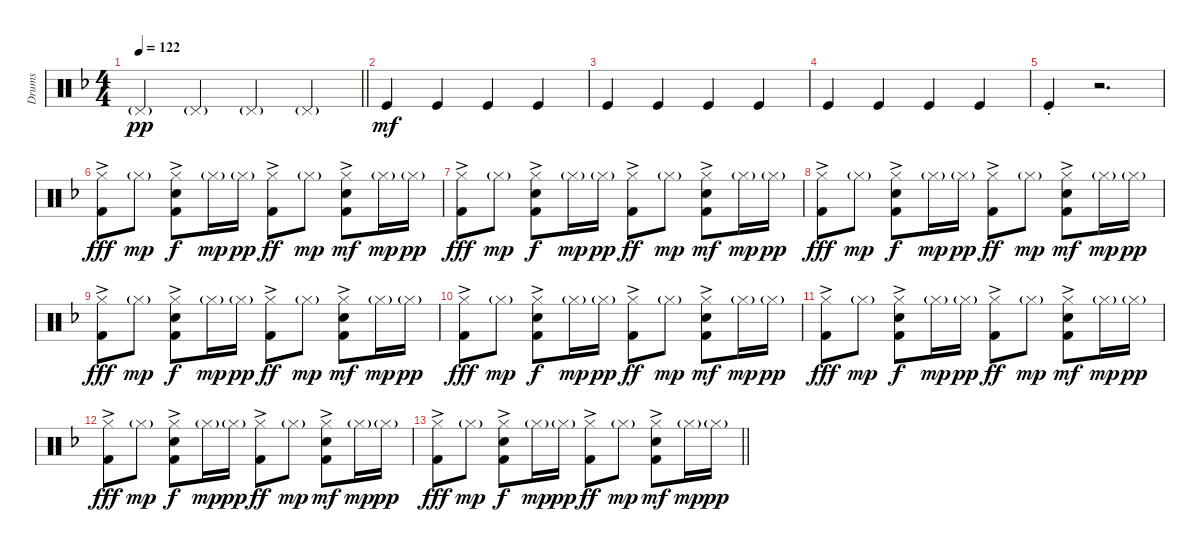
\track ("Drums" "Drums") {instrument percussion}
\staff {score}
\articulation defaults
\ts (4 4)
\tempo 122
\clef neutral
\barLineRight lightlight
\ks f "Pedal Hi-Hat (hit)"{g}.4{dy pp} "Pedal Hi-Hat (hit)"{g}.4 "Pedal Hi-Hat (hit)"{g}.4 "Pedal Hi-Hat (hit)"{g}.4
|
"Kick (hit)".4{dy mf} "Kick (hit)".4 "Kick (hit)".4 "Kick (hit)".4 |
"Kick (hit)".4 "Kick (hit)".4 "Kick (hit)".4 "Kick (hit)".4 |
"Kick (hit)".4 "Kick (hit)".4 "Kick (hit)".4 "Kick (hit)".4 |
"Kick (hit)"{st}.4 r.2{d} |
("Kick (hit) 2"{ac} "Hi-Hat (closed)").8{dy fff} "Hi-Hat (closed)"{g}.8{dy mp} ("Kick (hit) 2" "Snare (hit) 2"{ac} "Hi-Hat (closed)").8{dy f} "Hi-Hat (closed)"{g}.16{dy mp} "Hi-Hat (closed)"{g}.16{dy pp} ("Kick (hit) 2"{ac} "Hi-Hat (closed)").8{dy ff} "Hi-Hat (closed)"{g}.8{dy mp} ("Kick (hit) 2" "Snare (hit) 2"{ac} "Hi-Hat (closed)").8{dy mf} "Hi-Hat (closed)"{g}.16{dy mp} "Hi-Hat (closed)"{g}.16{dy pp} |
("Kick (hit) 2"{ac} "Hi-Hat (closed)").8{dy fff} "Hi-Hat (closed)"{g}.8{dy mp} ("Kick (hit) 2" "Snare (hit) 2"{ac} "Hi-Hat (closed)").8{dy f} "Hi-Hat (closed)"{g}.16{dy mp} "Hi-Hat (closed)"{g}.16{dy pp} ("Kick (hit) 2"{ac} "Hi-Hat (closed)").8{dy ff} "Hi-Hat (closed)"{g}.8{dy mp} ("Kick (hit) 2" "Snare (hit) 2"{ac} "Hi-Hat (closed)").8{dy mf} "Hi-Hat (closed)"{g}.16{dy mp} "Hi-Hat (closed)"{g}.16{dy pp} |
("Kick (hit) 2"{ac} "Hi-Hat (closed)").8{dy fff} "Hi-Hat (closed)"{g}.8{dy mp} ("Kick (hit) 2" "Snare (hit) 2"{ac} "Hi-Hat (closed)").8{dy f} "Hi-Hat (closed)"{g}.16{dy mp} "Hi-Hat (closed)"{g}.16{dy pp} ("Kick (hit) 2"{ac} "Hi-Hat (closed)").8{dy ff} "Hi-Hat (closed)"{g}.8{dy mp} ("Kick (hit) 2" "Snare (hit) 2"{ac} "Hi-Hat (closed)").8{dy mf} "Hi-Hat (closed)"{g}.16{dy mp} "Hi-Hat (closed)"{g}.16{dy pp} |
("Kick (hit) 2"{ac} "Hi-Hat (closed)").8{dy fff} "Hi-Hat (closed)"{g}.8{dy mp} ("Kick (hit) 2" "Snare (hit) 2"{ac} "Hi-Hat (closed)").8{dy f} "Hi-Hat (closed)"{g}.16{dy mp} "Hi-Hat (closed)"{g}.16{dy pp} ("Kick (hit) 2"{ac} "Hi-Hat (closed)").8{dy ff} "Hi-Hat (closed)"{g}.8{dy mp} ("Kick (hit) 2" "Snare (hit) 2"{ac} "Hi-Hat (closed)").8{dy mf} "Hi-Hat (closed)"{g}.16{dy mp} "Hi-Hat (closed)"{g}.16{dy pp} |
("Kick (hit) 2"{ac} "Hi-Hat (closed)").8{dy fff} "Hi-Hat (closed)"{g}.8{dy mp} ("Kick (hit) 2" "Snare (hit) 2"{ac} "Hi-Hat (closed)").8{dy f} "Hi-Hat (closed)"{g}.16{dy mp} "Hi-Hat (closed)"{g}.16{dy pp} ("Kick (hit) 2"{ac} "Hi-Hat (closed)").8{dy ff} "Hi-Hat (closed)"{g}.8{dy mp} ("Kick (hit) 2" "Snare (hit) 2"{ac} "Hi-Hat (closed)").8{dy mf} "Hi-Hat (closed)"{g}.16{dy mp} "Hi-Hat (closed)"{g}.16{dy pp} |
("Kick (hit) 2"{ac} "Hi-Hat (closed)").8{dy fff} "Hi-Hat (closed)"{g}.8{dy mp} ("Kick (hit) 2" "Snare (hit) 2"{ac} "Hi-Hat (closed)").8{dy f} "Hi-Hat (closed)"{g}.16{dy mp} "Hi-Hat (closed)"{g}.16{dy pp} ("Kick (hit) 2"{ac} "Hi-Hat (closed)").8{dy ff} "Hi-Hat (closed)"{g}.8{dy mp} ("Kick (hit) 2" "Snare (hit) 2"{ac} "Hi-Hat (closed)").8{dy mf} "Hi-Hat (closed)"{g}.16{dy mp} "Hi-Hat (closed)"{g}.16{dy pp} |
("Kick (hit) 2"{ac} "Hi-Hat (closed)").8{dy fff} "Hi-Hat (closed)"{g}.8{dy mp} ("Kick (hit) 2" "Snare (hit) 2"{ac} "Hi-Hat (closed)").8{dy f} "Hi-Hat (closed)"{g}.16{dy mp} "Hi-Hat (closed)"{g}.16{dy pp} ("Kick (hit) 2"{ac} "Hi-Hat (closed)").8{dy ff} "Hi-Hat (closed)"{g}.8{dy mp} ("Kick (hit) 2" "Snare (hit) 2"{ac} "Hi-Hat (closed)").8{dy mf} "Hi-Hat (closed)"{g}.16{dy mp} "Hi-Hat (closed)"{g}.16{dy pp} |
\barLineRight lightlight
("Kick (hit) 2"{ac} "Hi-Hat (closed)").8{dy fff} "Hi-Hat (closed)"{g}.8{dy mp} ("Kick (hit) 2" "Snare (hit) 2"{ac} "Hi-Hat (closed)").8{dy f} "Hi-Hat (closed)"{g}.16{dy mp} "Hi-Hat (closed)"{g}.16{dy pp} ("Kick (hit) 2"{ac} "Hi-Hat (closed)").8{dy ff} "Hi-Hat (closed)"{g}.8{dy mp} ("Kick (hit) 2" "Snare (hit) 2"{ac} "Hi-Hat (closed)").8{dy mf} "Hi-Hat (closed)"{g}.16{dy mp} "Hi-Hat (closed)"{g}.16{dy pp}
